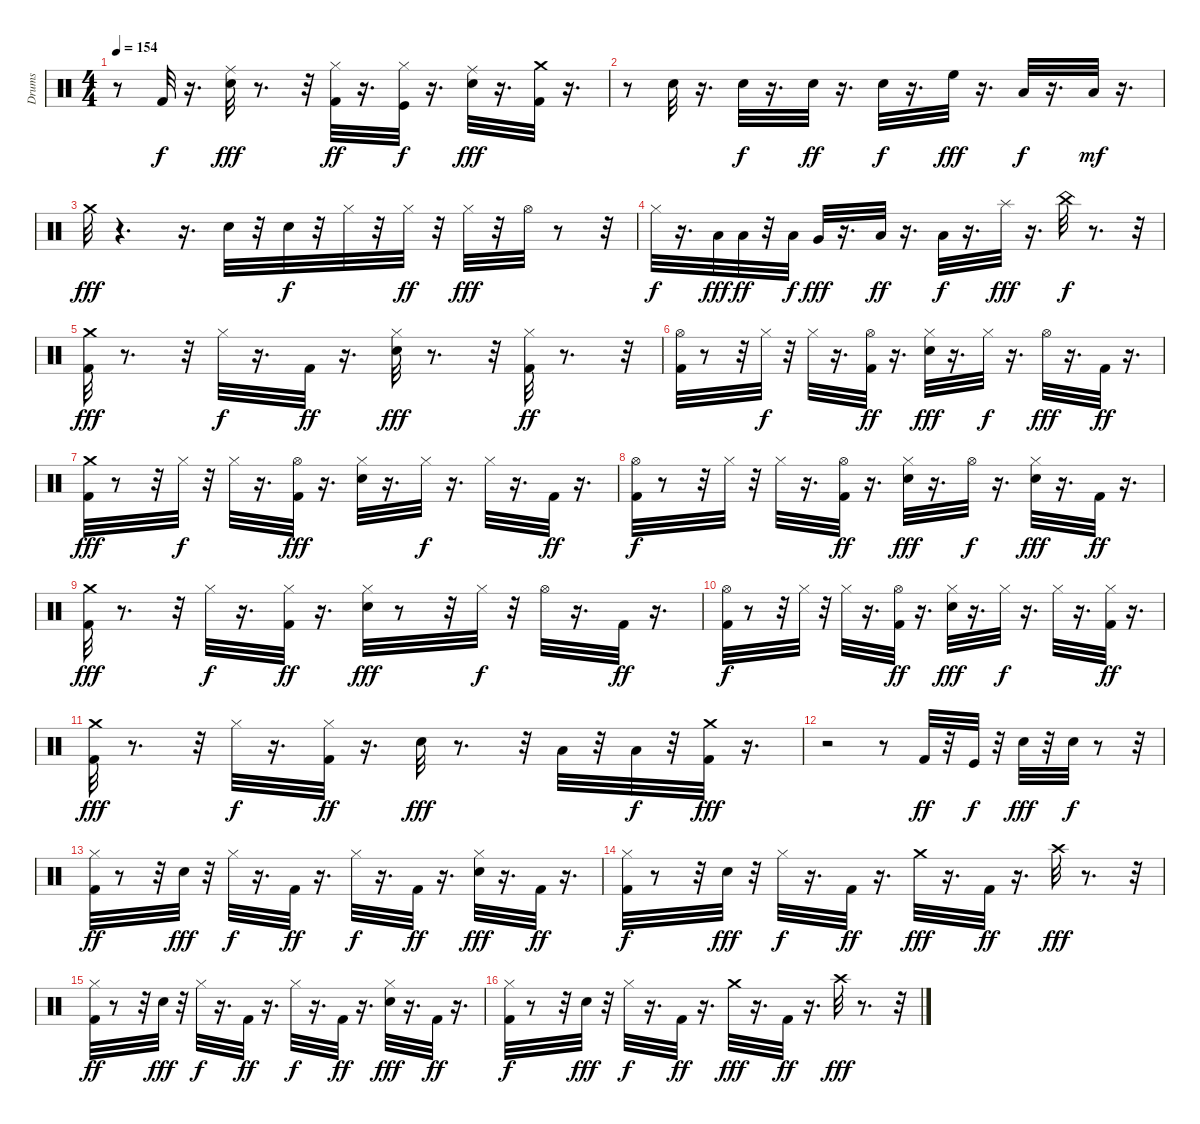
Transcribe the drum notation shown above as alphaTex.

\track ("Drums" "Drums") {instrument percussion}
\staff {score}
\articulation defaults
\ts (4 4)
\tempo 154
\clef neutral
\ks c
r.8{dy fff} "Kick (hit) 2".32{dy f} r.16{d} ("Snare (hit) 2" "Ride (middle)").32{dy fff} r.8{d} r.32 ("Kick (hit) 2" "Hi-Hat (closed)").32{dy ff} r.16{d} ("Kick (hit)" "Hi-Hat (closed)").32{dy f} r.16{d} ("Snare (hit) 2" "Ride (middle)").32{dy fff} r.16{d} ("Kick (hit) 2" "Crash medium (hit)").32 r.16{d} |
r.8 "Snare (hit) 2".32 r.16{d} "Snare (hit) 2".32{dy f} r.16{d} "Snare (hit) 2".32{dy ff} r.16{d} "Snare (hit) 2".32{dy f} r.16{d} "High Floor Tom (hit)".32{dy fff} r.16{d} "Low Tom (hit)".32{dy f} r.16{d} "Low Floor Tom (hit)".32{dy mf} r.16{d} |
"Crash medium (hit)".32{dy fff} r.4{d} r.16{d} "Snare (hit) 2".32 r.32 "Snare (hit) 2".32{dy f} r.32 "Hi-Hat (closed)".32 r.32 "Hi-Hat (closed)".32{dy ff} r.32 "Hi-Hat (closed)".32{dy fff} r.32 "Hi-Hat (open)".32 r.8 r.32 |
"Hi-Hat (closed)".32{dy f} r.16{d} "Low Tom (hit)".32{dy fff} "Low Tom (hit)".32{dy ff} r.32 "Low Tom (hit)".32{dy f} "Very Low Tom (hit)".32{dy fff} r.16{d} "Low Floor Tom (hit)".32{dy ff} r.16{d} "Low Floor Tom (hit)".32{dy f} r.16{d} "Splash (hit)".32{dy fff} r.16{d} "China (hit)".32{dy f} r.8{d} r.32 |
("Kick (hit) 2" "Crash medium (hit)").32{dy fff} r.8{d} r.32 "Hi-Hat (closed)".32{dy f} r.16{d} "Kick (hit) 2".32{dy ff} r.16{d} ("Snare (hit) 2" "Hi-Hat (closed)").32{dy fff} r.8{d} r.32 ("Kick (hit) 2" "Hi-Hat (closed)").32{dy ff} r.8{d} r.32 |
("Kick (hit) 2" "Hi-Hat (open)").32 r.8 r.32 "Hi-Hat (closed)".32{dy f} r.32 "Hi-Hat (closed)".32 r.16{d} ("Kick (hit) 2" "Hi-Hat (open)").32{dy ff} r.16{d} ("Snare (hit) 2" "Hi-Hat (closed)").32{dy fff} r.16{d} "Hi-Hat (closed)".32{dy f} r.16{d} "Hi-Hat (open)".32{dy fff} r.16{d} "Kick (hit) 2".32{dy ff} r.16{d} |
("Kick (hit) 2" "Crash medium (hit)").32{dy fff} r.8 r.32 "Hi-Hat (closed)".32{dy f} r.32 "Hi-Hat (closed)".32 r.16{d} ("Kick (hit) 2" "Hi-Hat (open)").32{dy fff} r.16{d} ("Snare (hit) 2" "Hi-Hat (closed)").32 r.16{d} "Hi-Hat (closed)".32{dy f} r.16{d} "Hi-Hat (closed)".32 r.16{d} "Kick (hit) 2".32{dy ff} r.16{d} |
("Kick (hit) 2" "Hi-Hat (open)").32{dy f} r.8 r.32 "Hi-Hat (closed)".32 r.32 "Hi-Hat (closed)".32 r.16{d} ("Kick (hit) 2" "Hi-Hat (open)").32{dy ff} r.16{d} ("Snare (hit) 2" "Hi-Hat (closed)").32{dy fff} r.16{d} "Hi-Hat (open)".32{dy f} r.16{d} ("Snare (hit) 2" "Hi-Hat (closed)").32{dy fff} r.16{d} "Kick (hit) 2".32{dy ff} r.16{d} |
("Kick (hit) 2" "Crash medium (hit)").32{dy fff} r.8{d} r.32 "Hi-Hat (closed)".32{dy f} r.16{d} ("Kick (hit) 2" "Hi-Hat (closed)").32{dy ff} r.16{d} ("Snare (hit) 2" "Hi-Hat (closed)").32{dy fff} r.8 r.32 "Hi-Hat (closed)".32{dy f} r.32 "Hi-Hat (open)".32 r.16{d} "Kick (hit) 2".32{dy ff} r.16{d} |
("Kick (hit) 2" "Hi-Hat (open)").32{dy f} r.8 r.32 "Hi-Hat (closed)".32 r.32 "Hi-Hat (closed)".32 r.16{d} ("Kick (hit) 2" "Hi-Hat (open)").32{dy ff} r.16{d} ("Snare (hit) 2" "Hi-Hat (closed)").32{dy fff} r.16{d} "Hi-Hat (closed)".32{dy f} r.16{d} "Hi-Hat (closed)".32 r.16{d} ("Kick (hit) 2" "Hi-Hat (closed)").32{dy ff} r.16{d} |
("Kick (hit) 2" "Crash medium (hit)").32{dy fff} r.8{d} r.32 "Hi-Hat (closed)".32{dy f} r.16{d} ("Kick (hit) 2" "Hi-Hat (closed)").32{dy ff} r.16{d} "Snare (hit) 2".32{dy fff} r.8{d} r.32 "Low Floor Tom (hit)".32 r.32 "Low Floor Tom (hit)".32{dy f} r.32 ("Kick (hit) 2" "Crash medium (hit)").32{dy fff} r.16{d} |
r.2 r.8 "Kick (hit) 2".32{dy ff} r.32 "Kick (hit)".32{dy f} r.32 "Snare (hit) 2".32{dy fff} r.32 "Snare (hit) 2".32{dy f} r.8 r.32 |
("Kick (hit) 2" "Hi-Hat (closed)").32{dy ff} r.8 r.32 "Snare (hit) 2".32{dy fff} r.32 "Hi-Hat (closed)".32{dy f} r.16{d} "Kick (hit) 2".32{dy ff} r.16{d} "Hi-Hat (closed)".32{dy f} r.16{d} "Kick (hit) 2".32{dy ff} r.16{d} ("Snare (hit) 2" "Hi-Hat (closed)").32{dy fff} r.16{d} "Kick (hit) 2".32{dy ff} r.16{d} |
("Kick (hit) 2" "Hi-Hat (closed)").32{dy f} r.8 r.32 "Snare (hit) 2".32{dy fff} r.32 "Hi-Hat (closed)".32{dy f} r.16{d} "Kick (hit) 2".32{dy ff} r.16{d} "Crash medium (hit)".32{dy fff} r.16{d} "Kick (hit) 2".32{dy ff} r.16{d} "Crash high (hit)".32{dy fff} r.8{d} r.32 |
("Kick (hit) 2" "Hi-Hat (closed)").32{dy ff} r.8 r.32 "Snare (hit) 2".32{dy fff} r.32 "Hi-Hat (closed)".32{dy f} r.16{d} "Kick (hit) 2".32{dy ff} r.16{d} "Hi-Hat (closed)".32{dy f} r.16{d} "Kick (hit) 2".32{dy ff} r.16{d} ("Snare (hit) 2" "Hi-Hat (closed)").32{dy fff} r.16{d} "Kick (hit) 2".32{dy ff} r.16{d} |
("Kick (hit) 2" "Hi-Hat (closed)").32{dy f} r.8 r.32 "Snare (hit) 2".32{dy fff} r.32 "Hi-Hat (closed)".32{dy f} r.16{d} "Kick (hit) 2".32{dy ff} r.16{d} "Crash medium (hit)".32{dy fff} r.16{d} "Kick (hit) 2".32{dy ff} r.16{d} "Crash high (hit)".32{dy fff} r.8{d} r.32
